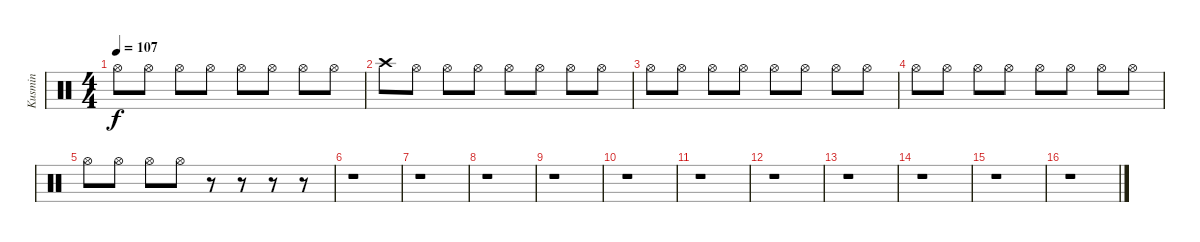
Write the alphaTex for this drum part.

\track ("Kusmin" "Kusmin") {instrument percussion}
\staff {score}
\articulation defaults
\ts (4 4)
\tempo 107
\clef neutral
\ks c "Hi-Hat (open)".8{dy f} "Hi-Hat (open)".8 "Hi-Hat (open)".8 "Hi-Hat (open)".8 "Hi-Hat (open)".8 "Hi-Hat (open)".8 "Hi-Hat (open)".8 "Hi-Hat (open)".8
|
"Crash high (hit)".8 "Hi-Hat (open)".8 "Hi-Hat (open)".8 "Hi-Hat (open)".8 "Hi-Hat (open)".8 "Hi-Hat (open)".8 "Hi-Hat (open)".8 "Hi-Hat (open)".8 |
"Hi-Hat (open)".8 "Hi-Hat (open)".8 "Hi-Hat (open)".8 "Hi-Hat (open)".8 "Hi-Hat (open)".8 "Hi-Hat (open)".8 "Hi-Hat (open)".8 "Hi-Hat (open)".8 |
"Hi-Hat (open)".8 "Hi-Hat (open)".8 "Hi-Hat (open)".8 "Hi-Hat (open)".8 "Hi-Hat (open)".8 "Hi-Hat (open)".8 "Hi-Hat (open)".8 "Hi-Hat (open)".8 |
"Hi-Hat (open)".8 "Hi-Hat (open)".8 "Hi-Hat (open)".8 "Hi-Hat (open)".8 r.8 r.8 r.8 r.8 |
r.1 |
r.1 |
r.1 |
r.1 |
r.1 |
r.1 |
r.1 |
r.1 |
r.1 |
r.1 |
r.1
